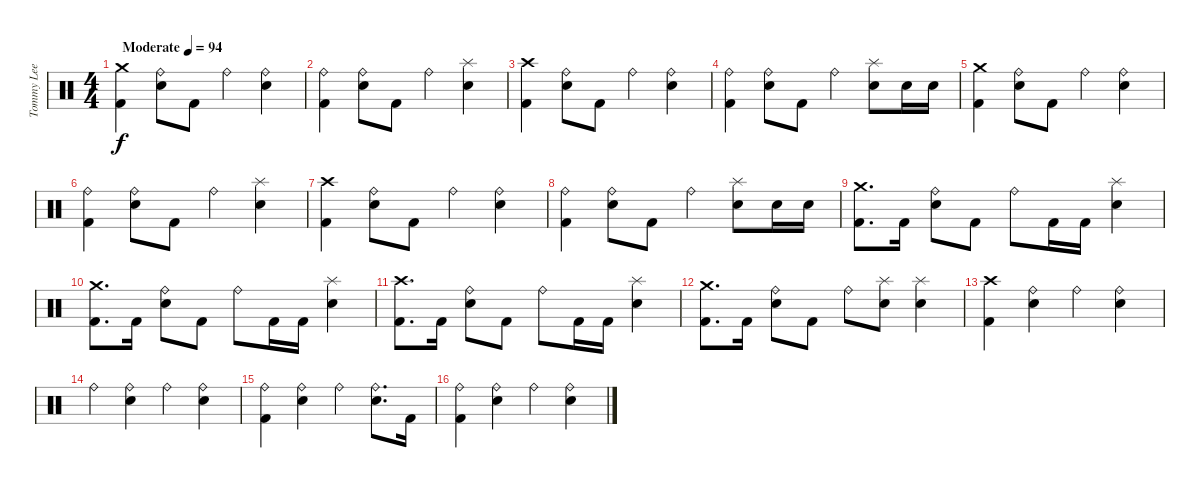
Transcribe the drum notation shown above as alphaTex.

\track ("Tommy Lee" "Tommy Lee") {instrument percussion}
\staff {score}
\articulation defaults
\ts (4 4)
\tempo (94 "Moderate")
\clef neutral
\ks c
("Crash medium (hit)" "Kick (hit) 2").4{dy f} ("Ride (bell)" "Snare (hit) 2").8 "Kick (hit) 2".8 "Ride (bell)".4 ("Ride (bell)" "Snare (hit) 2").4 |
("Ride (bell)" "Kick (hit) 2").4 ("Ride (bell)" "Snare (hit) 2").8 "Kick (hit) 2".8 "Ride (bell)".4 ("Splash (hit)" "Snare (hit) 2").4 |
("Crash high (hit)" "Kick (hit) 2").4 ("Ride (bell)" "Snare (hit) 2").8 "Kick (hit) 2".8 "Ride (bell)".4 ("Ride (bell)" "Snare (hit) 2").4 |
("Ride (bell)" "Kick (hit) 2").4 ("Ride (bell)" "Snare (hit) 2").8 "Kick (hit) 2".8 "Ride (bell)".4 ("Splash (hit)" "Snare (hit) 2").8 "Snare (hit) 2".16 "Snare (hit) 2".16 |
("Crash medium (hit)" "Kick (hit) 2").4 ("Ride (bell)" "Snare (hit) 2").8 "Kick (hit) 2".8 "Ride (bell)".4 ("Ride (bell)" "Snare (hit) 2").4 |
("Ride (bell)" "Kick (hit) 2").4 ("Ride (bell)" "Snare (hit) 2").8 "Kick (hit) 2".8 "Ride (bell)".4 ("Splash (hit)" "Snare (hit) 2").4 |
("Crash high (hit)" "Kick (hit) 2").4 ("Ride (bell)" "Snare (hit) 2").8 "Kick (hit) 2".8 "Ride (bell)".4 ("Ride (bell)" "Snare (hit) 2").4 |
("Ride (bell)" "Kick (hit) 2").4 ("Ride (bell)" "Snare (hit) 2").8 "Kick (hit) 2".8 "Ride (bell)".4 ("Splash (hit)" "Snare (hit) 2").8 "Snare (hit) 2".16 "Snare (hit) 2".16 |
("Crash medium (hit)" "Kick (hit) 2").8{d} "Kick (hit) 2".16 ("Ride (bell)" "Snare (hit) 2").8 "Kick (hit) 2".8 "Ride (bell)".8 "Kick (hit) 2".16 "Kick (hit) 2".16 ("Splash (hit)" "Snare (hit) 2").4 |
("Crash medium (hit)" "Kick (hit) 2").8{d} "Kick (hit) 2".16 ("Ride (bell)" "Snare (hit) 2").8 "Kick (hit) 2".8 "Ride (bell)".8 "Kick (hit) 2".16 "Kick (hit) 2".16 ("Splash (hit)" "Snare (hit) 2").4 |
("Crash high (hit)" "Kick (hit) 2").8{d} "Kick (hit) 2".16 ("Ride (bell)" "Snare (hit) 2").8 "Kick (hit) 2".8 "Ride (bell)".8 "Kick (hit) 2".16 "Kick (hit) 2".16 ("Splash (hit)" "Snare (hit) 2").4 |
("Crash medium (hit)" "Kick (hit) 2").8{d} "Kick (hit) 2".16 ("Ride (bell)" "Snare (hit) 2").8 "Kick (hit) 2".8 "Ride (bell)".8 ("Splash (hit)" "Snare (hit) 2").8 ("Splash (hit)" "Snare (hit) 2").4 |
("Crash high (hit)" "Kick (hit) 2").4 ("Ride (bell)" "Snare (hit) 2").4 "Ride (bell)".4 ("Ride (bell)" "Snare (hit) 2").4 |
"Ride (bell)".4 ("Ride (bell)" "Snare (hit) 2").4 "Ride (bell)".4 ("Ride (bell)" "Snare (hit) 2").4 |
("Ride (bell)" "Kick (hit) 2").4 ("Ride (bell)" "Snare (hit) 2").4 "Ride (bell)".4 ("Ride (bell)" "Snare (hit) 2").8{d} "Kick (hit) 2".16 |
("Ride (bell)" "Kick (hit) 2").4 ("Ride (bell)" "Snare (hit) 2").4 "Ride (bell)".4 ("Ride (bell)" "Snare (hit) 2").4
